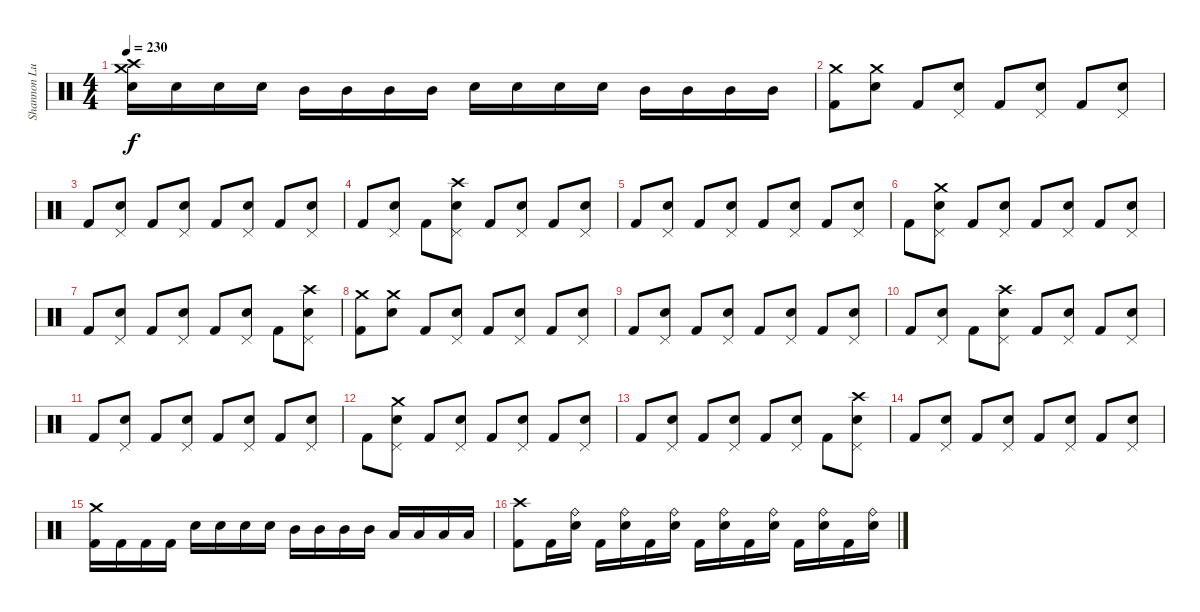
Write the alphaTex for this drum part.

\track ("Shannon Lucas" "Shannon Lu") {instrument percussion}
\staff {score}
\articulation defaults
\ts (4 4)
\tempo 230
\clef neutral
\ks c
("Crash medium (hit)" "Crash high (hit)" "Electric Snare (hit)").16{dy f} "Electric Snare (hit)".16 "Electric Snare (hit)".16 "Electric Snare (hit)".16 "Mid Tom (hit)".16 "Mid Tom (hit)".16 "Mid Tom (hit)".16 "Mid Tom (hit)".16 "Electric Snare (hit)".16 "Electric Snare (hit)".16 "Electric Snare (hit)".16 "Electric Snare (hit)".16 "Mid Tom (hit)".16 "Mid Tom (hit)".16 "Mid Tom (hit)".16 "Mid Tom (hit)".16 |
("Crash medium (hit)" "Kick (hit) 2").8 ("Crash medium (hit)" "Electric Snare (hit)").8 "Kick (hit) 2".8 ("Pedal Hi-Hat (hit)" "Electric Snare (hit)").8 "Kick (hit) 2".8 ("Pedal Hi-Hat (hit)" "Electric Snare (hit)").8 "Kick (hit) 2".8 ("Pedal Hi-Hat (hit)" "Electric Snare (hit)").8 |
"Kick (hit) 2".8 ("Pedal Hi-Hat (hit)" "Electric Snare (hit)").8 "Kick (hit) 2".8 ("Pedal Hi-Hat (hit)" "Electric Snare (hit)").8 "Kick (hit) 2".8 ("Pedal Hi-Hat (hit)" "Electric Snare (hit)").8 "Kick (hit) 2".8 ("Pedal Hi-Hat (hit)" "Electric Snare (hit)").8 |
"Kick (hit) 2".8 ("Pedal Hi-Hat (hit)" "Electric Snare (hit)").8 "Kick (hit) 2".8 ("Pedal Hi-Hat (hit)" "Crash high (hit)" "Electric Snare (hit)").8 "Kick (hit) 2".8 ("Pedal Hi-Hat (hit)" "Electric Snare (hit)").8 "Kick (hit) 2".8 ("Pedal Hi-Hat (hit)" "Electric Snare (hit)").8 |
"Kick (hit) 2".8 ("Pedal Hi-Hat (hit)" "Electric Snare (hit)").8 "Kick (hit) 2".8 ("Pedal Hi-Hat (hit)" "Electric Snare (hit)").8 "Kick (hit) 2".8 ("Pedal Hi-Hat (hit)" "Electric Snare (hit)").8 "Kick (hit) 2".8 ("Pedal Hi-Hat (hit)" "Electric Snare (hit)").8 |
"Kick (hit) 2".8 ("Pedal Hi-Hat (hit)" "Crash medium (hit)" "Electric Snare (hit)").8 "Kick (hit) 2".8 ("Pedal Hi-Hat (hit)" "Electric Snare (hit)").8 "Kick (hit) 2".8 ("Pedal Hi-Hat (hit)" "Electric Snare (hit)").8 "Kick (hit) 2".8 ("Pedal Hi-Hat (hit)" "Electric Snare (hit)").8 |
"Kick (hit) 2".8 ("Pedal Hi-Hat (hit)" "Electric Snare (hit)").8 "Kick (hit) 2".8 ("Pedal Hi-Hat (hit)" "Electric Snare (hit)").8 "Kick (hit) 2".8 ("Pedal Hi-Hat (hit)" "Electric Snare (hit)").8 "Kick (hit) 2".8 ("Pedal Hi-Hat (hit)" "Crash high (hit)" "Electric Snare (hit)").8 |
("Crash medium (hit)" "Kick (hit) 2").8 ("Crash medium (hit)" "Electric Snare (hit)").8 "Kick (hit) 2".8 ("Pedal Hi-Hat (hit)" "Electric Snare (hit)").8 "Kick (hit) 2".8 ("Pedal Hi-Hat (hit)" "Electric Snare (hit)").8 "Kick (hit) 2".8 ("Pedal Hi-Hat (hit)" "Electric Snare (hit)").8 |
"Kick (hit) 2".8 ("Pedal Hi-Hat (hit)" "Electric Snare (hit)").8 "Kick (hit) 2".8 ("Pedal Hi-Hat (hit)" "Electric Snare (hit)").8 "Kick (hit) 2".8 ("Pedal Hi-Hat (hit)" "Electric Snare (hit)").8 "Kick (hit) 2".8 ("Pedal Hi-Hat (hit)" "Electric Snare (hit)").8 |
"Kick (hit) 2".8 ("Pedal Hi-Hat (hit)" "Electric Snare (hit)").8 "Kick (hit) 2".8 ("Pedal Hi-Hat (hit)" "Crash high (hit)" "Electric Snare (hit)").8 "Kick (hit) 2".8 ("Pedal Hi-Hat (hit)" "Electric Snare (hit)").8 "Kick (hit) 2".8 ("Pedal Hi-Hat (hit)" "Electric Snare (hit)").8 |
"Kick (hit) 2".8 ("Pedal Hi-Hat (hit)" "Electric Snare (hit)").8 "Kick (hit) 2".8 ("Pedal Hi-Hat (hit)" "Electric Snare (hit)").8 "Kick (hit) 2".8 ("Pedal Hi-Hat (hit)" "Electric Snare (hit)").8 "Kick (hit) 2".8 ("Pedal Hi-Hat (hit)" "Electric Snare (hit)").8 |
"Kick (hit) 2".8 ("Pedal Hi-Hat (hit)" "Crash medium (hit)" "Electric Snare (hit)").8 "Kick (hit) 2".8 ("Pedal Hi-Hat (hit)" "Electric Snare (hit)").8 "Kick (hit) 2".8 ("Pedal Hi-Hat (hit)" "Electric Snare (hit)").8 "Kick (hit) 2".8 ("Pedal Hi-Hat (hit)" "Electric Snare (hit)").8 |
"Kick (hit) 2".8 ("Pedal Hi-Hat (hit)" "Electric Snare (hit)").8 "Kick (hit) 2".8 ("Pedal Hi-Hat (hit)" "Electric Snare (hit)").8 "Kick (hit) 2".8 ("Pedal Hi-Hat (hit)" "Electric Snare (hit)").8 "Kick (hit) 2".8 ("Pedal Hi-Hat (hit)" "Crash high (hit)" "Electric Snare (hit)").8 |
"Kick (hit) 2".8 ("Pedal Hi-Hat (hit)" "Electric Snare (hit)").8 "Kick (hit) 2".8 ("Pedal Hi-Hat (hit)" "Electric Snare (hit)").8 "Kick (hit) 2".8 ("Pedal Hi-Hat (hit)" "Electric Snare (hit)").8 "Kick (hit) 2".8 ("Pedal Hi-Hat (hit)" "Electric Snare (hit)").8 |
("Crash medium (hit)" "Kick (hit) 2").16 "Kick (hit) 2".16 "Kick (hit) 2".16 "Kick (hit) 2".16 "Electric Snare (hit)".16 "Electric Snare (hit)".16 "Electric Snare (hit)".16 "Electric Snare (hit)".16 "Mid Tom (hit)".16 "Mid Tom (hit)".16 "Mid Tom (hit)".16 "Mid Tom (hit)".16 "Low Tom (hit)".16 "Low Tom (hit)".16 "Low Tom (hit)".16 "Low Tom (hit)".16 |
("Crash high (hit)" "Kick (hit) 2").8 "Kick (hit) 2".16 ("Ride (bell)" "Electric Snare (hit)").16 "Kick (hit) 2".16 ("Ride (bell)" "Electric Snare (hit)").16 "Kick (hit) 2".16 ("Ride (bell)" "Electric Snare (hit)").16 "Kick (hit) 2".16 ("Ride (bell)" "Electric Snare (hit)").16 "Kick (hit) 2".16 ("Ride (bell)" "Electric Snare (hit)").16 "Kick (hit) 2".16 ("Ride (bell)" "Electric Snare (hit)").16 "Kick (hit) 2".16 ("Ride (bell)" "Electric Snare (hit)").16
